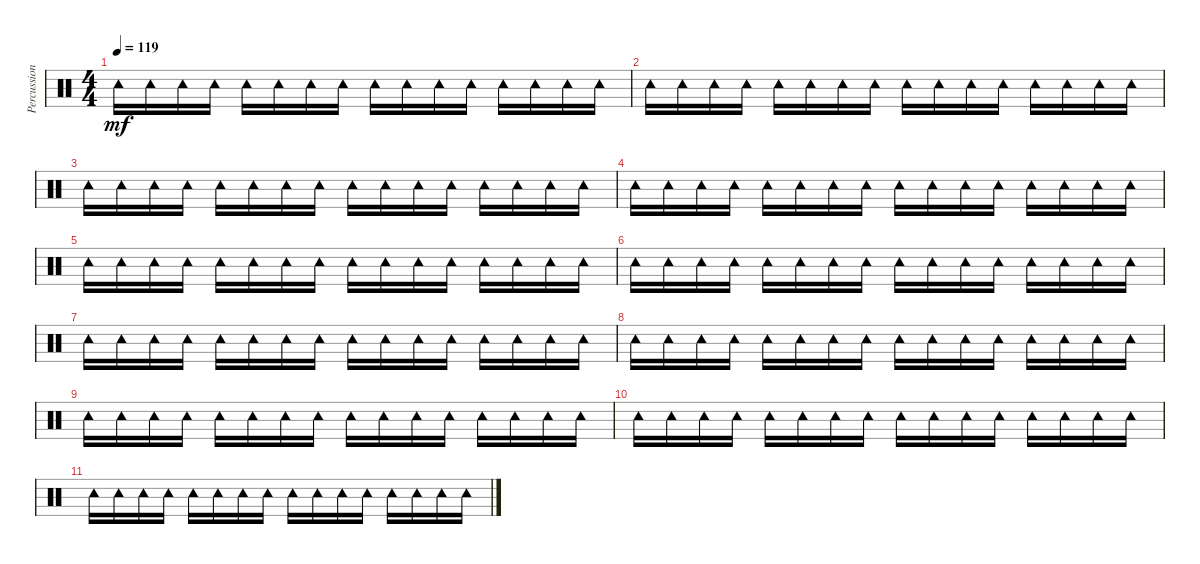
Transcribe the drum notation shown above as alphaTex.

\track ("Percussions" "Percussion") {instrument percussion}
\staff {score}
\articulation defaults
\ts (4 4)
\tempo 119
\clef neutral
\ks c "Tambourine (hit)".16{dy mf} "Tambourine (hit)".16 "Tambourine (hit)".16 "Tambourine (hit)".16 "Tambourine (hit)".16 "Tambourine (hit)".16 "Tambourine (hit)".16 "Tambourine (hit)".16 "Tambourine (hit)".16 "Tambourine (hit)".16 "Tambourine (hit)".16 "Tambourine (hit)".16 "Tambourine (hit)".16 "Tambourine (hit)".16 "Tambourine (hit)".16 "Tambourine (hit)".16
|
"Tambourine (hit)".16 "Tambourine (hit)".16 "Tambourine (hit)".16 "Tambourine (hit)".16 "Tambourine (hit)".16 "Tambourine (hit)".16 "Tambourine (hit)".16 "Tambourine (hit)".16 "Tambourine (hit)".16 "Tambourine (hit)".16 "Tambourine (hit)".16 "Tambourine (hit)".16 "Tambourine (hit)".16 "Tambourine (hit)".16 "Tambourine (hit)".16 "Tambourine (hit)".16 |
"Tambourine (hit)".16 "Tambourine (hit)".16 "Tambourine (hit)".16 "Tambourine (hit)".16 "Tambourine (hit)".16 "Tambourine (hit)".16 "Tambourine (hit)".16 "Tambourine (hit)".16 "Tambourine (hit)".16 "Tambourine (hit)".16 "Tambourine (hit)".16 "Tambourine (hit)".16 "Tambourine (hit)".16 "Tambourine (hit)".16 "Tambourine (hit)".16 "Tambourine (hit)".16 |
"Tambourine (hit)".16 "Tambourine (hit)".16 "Tambourine (hit)".16 "Tambourine (hit)".16 "Tambourine (hit)".16 "Tambourine (hit)".16 "Tambourine (hit)".16 "Tambourine (hit)".16 "Tambourine (hit)".16 "Tambourine (hit)".16 "Tambourine (hit)".16 "Tambourine (hit)".16 "Tambourine (hit)".16 "Tambourine (hit)".16 "Tambourine (hit)".16 "Tambourine (hit)".16 |
"Tambourine (hit)".16 "Tambourine (hit)".16 "Tambourine (hit)".16 "Tambourine (hit)".16 "Tambourine (hit)".16 "Tambourine (hit)".16 "Tambourine (hit)".16 "Tambourine (hit)".16 "Tambourine (hit)".16 "Tambourine (hit)".16 "Tambourine (hit)".16 "Tambourine (hit)".16 "Tambourine (hit)".16 "Tambourine (hit)".16 "Tambourine (hit)".16 "Tambourine (hit)".16 |
"Tambourine (hit)".16 "Tambourine (hit)".16 "Tambourine (hit)".16 "Tambourine (hit)".16 "Tambourine (hit)".16 "Tambourine (hit)".16 "Tambourine (hit)".16 "Tambourine (hit)".16 "Tambourine (hit)".16 "Tambourine (hit)".16 "Tambourine (hit)".16 "Tambourine (hit)".16 "Tambourine (hit)".16 "Tambourine (hit)".16 "Tambourine (hit)".16 "Tambourine (hit)".16 |
"Tambourine (hit)".16 "Tambourine (hit)".16 "Tambourine (hit)".16 "Tambourine (hit)".16 "Tambourine (hit)".16 "Tambourine (hit)".16 "Tambourine (hit)".16 "Tambourine (hit)".16 "Tambourine (hit)".16 "Tambourine (hit)".16 "Tambourine (hit)".16 "Tambourine (hit)".16 "Tambourine (hit)".16 "Tambourine (hit)".16 "Tambourine (hit)".16 "Tambourine (hit)".16 |
"Tambourine (hit)".16{volume 3} "Tambourine (hit)".16 "Tambourine (hit)".16 "Tambourine (hit)".16 "Tambourine (hit)".16 "Tambourine (hit)".16 "Tambourine (hit)".16 "Tambourine (hit)".16 "Tambourine (hit)".16 "Tambourine (hit)".16 "Tambourine (hit)".16 "Tambourine (hit)".16 "Tambourine (hit)".16 "Tambourine (hit)".16 "Tambourine (hit)".16 "Tambourine (hit)".16 |
"Tambourine (hit)".16 "Tambourine (hit)".16 "Tambourine (hit)".16 "Tambourine (hit)".16 "Tambourine (hit)".16 "Tambourine (hit)".16 "Tambourine (hit)".16 "Tambourine (hit)".16 "Tambourine (hit)".16 "Tambourine (hit)".16 "Tambourine (hit)".16 "Tambourine (hit)".16 "Tambourine (hit)".16 "Tambourine (hit)".16 "Tambourine (hit)".16 "Tambourine (hit)".16 |
"Tambourine (hit)".16 "Tambourine (hit)".16 "Tambourine (hit)".16 "Tambourine (hit)".16 "Tambourine (hit)".16 "Tambourine (hit)".16 "Tambourine (hit)".16 "Tambourine (hit)".16 "Tambourine (hit)".16 "Tambourine (hit)".16 "Tambourine (hit)".16 "Tambourine (hit)".16 "Tambourine (hit)".16 "Tambourine (hit)".16 "Tambourine (hit)".16 "Tambourine (hit)".16 |
"Tambourine (hit)".16 "Tambourine (hit)".16 "Tambourine (hit)".16 "Tambourine (hit)".16 "Tambourine (hit)".16 "Tambourine (hit)".16 "Tambourine (hit)".16 "Tambourine (hit)".16 "Tambourine (hit)".16 "Tambourine (hit)".16 "Tambourine (hit)".16 "Tambourine (hit)".16 "Tambourine (hit)".16 "Tambourine (hit)".16 "Tambourine (hit)".16 "Tambourine (hit)".16
